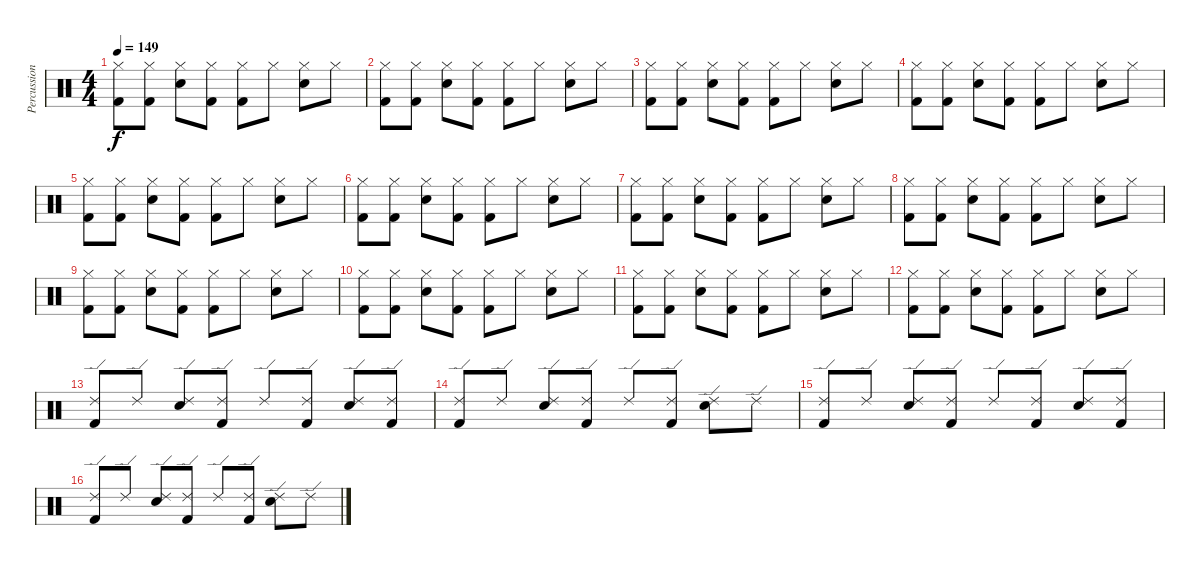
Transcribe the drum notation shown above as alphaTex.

\track ("Percussion" "Percussion") {instrument percussion}
\staff {score}
\articulation defaults
\ts (4 4)
\tempo 149
\clef neutral
\ks c
("Hi-Hat (closed)" "Kick (hit) 2").8{dy f} ("Hi-Hat (closed)" "Kick (hit) 2").8 ("Hi-Hat (closed)" "Electric Snare (hit)").8 ("Hi-Hat (closed)" "Kick (hit) 2").8 ("Hi-Hat (closed)" "Kick (hit) 2").8 "Hi-Hat (closed)".8 ("Hi-Hat (closed)" "Electric Snare (hit)").8 "Hi-Hat (closed)".8 |
("Hi-Hat (closed)" "Kick (hit) 2").8 ("Hi-Hat (closed)" "Kick (hit) 2").8 ("Hi-Hat (closed)" "Electric Snare (hit)").8 ("Hi-Hat (closed)" "Kick (hit) 2").8 ("Hi-Hat (closed)" "Kick (hit) 2").8 "Hi-Hat (closed)".8 ("Hi-Hat (closed)" "Electric Snare (hit)").8 "Hi-Hat (closed)".8 |
("Hi-Hat (closed)" "Kick (hit) 2").8 ("Hi-Hat (closed)" "Kick (hit) 2").8 ("Hi-Hat (closed)" "Electric Snare (hit)").8 ("Hi-Hat (closed)" "Kick (hit) 2").8 ("Hi-Hat (closed)" "Kick (hit) 2").8 "Hi-Hat (closed)".8 ("Hi-Hat (closed)" "Electric Snare (hit)").8 "Hi-Hat (closed)".8 |
("Hi-Hat (closed)" "Kick (hit) 2").8 ("Hi-Hat (closed)" "Kick (hit) 2").8 ("Hi-Hat (closed)" "Electric Snare (hit)").8 ("Hi-Hat (closed)" "Kick (hit) 2").8 ("Hi-Hat (closed)" "Kick (hit) 2").8 "Hi-Hat (closed)".8 ("Hi-Hat (closed)" "Electric Snare (hit)").8 "Hi-Hat (closed)".8 |
("Hi-Hat (closed)" "Kick (hit) 2").8 ("Hi-Hat (closed)" "Kick (hit) 2").8 ("Hi-Hat (closed)" "Electric Snare (hit)").8 ("Hi-Hat (closed)" "Kick (hit) 2").8 ("Hi-Hat (closed)" "Kick (hit) 2").8 "Hi-Hat (closed)".8 ("Hi-Hat (closed)" "Electric Snare (hit)").8 "Hi-Hat (closed)".8 |
("Hi-Hat (closed)" "Kick (hit) 2").8 ("Hi-Hat (closed)" "Kick (hit) 2").8 ("Hi-Hat (closed)" "Electric Snare (hit)").8 ("Hi-Hat (closed)" "Kick (hit) 2").8 ("Hi-Hat (closed)" "Kick (hit) 2").8 "Hi-Hat (closed)".8 ("Hi-Hat (closed)" "Electric Snare (hit)").8 "Hi-Hat (closed)".8 |
("Hi-Hat (closed)" "Kick (hit) 2").8 ("Hi-Hat (closed)" "Kick (hit) 2").8 ("Hi-Hat (closed)" "Electric Snare (hit)").8 ("Hi-Hat (closed)" "Kick (hit) 2").8 ("Hi-Hat (closed)" "Kick (hit) 2").8 "Hi-Hat (closed)".8 ("Hi-Hat (closed)" "Electric Snare (hit)").8 "Hi-Hat (closed)".8 |
("Hi-Hat (closed)" "Kick (hit) 2").8 ("Hi-Hat (closed)" "Kick (hit) 2").8 ("Hi-Hat (closed)" "Electric Snare (hit)").8 ("Hi-Hat (closed)" "Kick (hit) 2").8 ("Hi-Hat (closed)" "Kick (hit) 2").8 "Hi-Hat (closed)".8 ("Hi-Hat (closed)" "Electric Snare (hit)").8 "Hi-Hat (closed)".8 |
("Hi-Hat (closed)" "Kick (hit) 2").8 ("Hi-Hat (closed)" "Kick (hit) 2").8 ("Hi-Hat (closed)" "Electric Snare (hit)").8 ("Hi-Hat (closed)" "Kick (hit) 2").8 ("Hi-Hat (closed)" "Kick (hit) 2").8 "Hi-Hat (closed)".8 ("Hi-Hat (closed)" "Electric Snare (hit)").8 "Hi-Hat (closed)".8 |
("Hi-Hat (closed)" "Kick (hit) 2").8 ("Hi-Hat (closed)" "Kick (hit) 2").8 ("Hi-Hat (closed)" "Electric Snare (hit)").8 ("Hi-Hat (closed)" "Kick (hit) 2").8 ("Hi-Hat (closed)" "Kick (hit) 2").8 "Hi-Hat (closed)".8 ("Hi-Hat (closed)" "Electric Snare (hit)").8 "Hi-Hat (closed)".8 |
("Hi-Hat (closed)" "Kick (hit) 2").8 ("Hi-Hat (closed)" "Kick (hit) 2").8 ("Hi-Hat (closed)" "Electric Snare (hit)").8 ("Hi-Hat (closed)" "Kick (hit) 2").8 ("Hi-Hat (closed)" "Kick (hit) 2").8 "Hi-Hat (closed)".8 ("Hi-Hat (closed)" "Electric Snare (hit)").8 "Hi-Hat (closed)".8 |
("Hi-Hat (closed)" "Kick (hit) 2").8 ("Hi-Hat (closed)" "Kick (hit) 2").8 ("Hi-Hat (closed)" "Electric Snare (hit)").8 ("Hi-Hat (closed)" "Kick (hit) 2").8 ("Hi-Hat (closed)" "Kick (hit) 2").8 "Hi-Hat (closed)".8 ("Hi-Hat (closed)" "Electric Snare (hit)").8 "Hi-Hat (closed)".8 |
("Ride (edge) 2" "Kick (hit) 2").8 "Ride (edge) 2".8 ("Ride (edge) 2" "Electric Snare (hit)").8 ("Ride (edge) 2" "Kick (hit) 2").8 "Ride (edge) 2".8 ("Ride (edge) 2" "Kick (hit) 2").8 ("Ride (edge) 2" "Electric Snare (hit)").8 ("Ride (edge) 2" "Kick (hit) 2").8 |
("Ride (edge) 2" "Kick (hit) 2").8 "Ride (edge) 2".8 ("Ride (edge) 2" "Electric Snare (hit)").8 ("Ride (edge) 2" "Kick (hit) 2").8 "Ride (edge) 2".8 ("Ride (edge) 2" "Kick (hit) 2").8 ("Ride (edge) 2" "Electric Snare (hit)").8 "Ride (edge) 2".8 |
("Ride (edge) 2" "Kick (hit) 2").8 "Ride (edge) 2".8 ("Ride (edge) 2" "Electric Snare (hit)").8 ("Ride (edge) 2" "Kick (hit) 2").8 "Ride (edge) 2".8 ("Ride (edge) 2" "Kick (hit) 2").8 ("Ride (edge) 2" "Electric Snare (hit)").8 ("Ride (edge) 2" "Kick (hit) 2").8 |
("Ride (edge) 2" "Kick (hit) 2").8 "Ride (edge) 2".8 ("Ride (edge) 2" "Electric Snare (hit)").8 ("Ride (edge) 2" "Kick (hit) 2").8 "Ride (edge) 2".8 ("Ride (edge) 2" "Kick (hit) 2").8 ("Ride (edge) 2" "Electric Snare (hit)").8 "Ride (edge) 2".8
